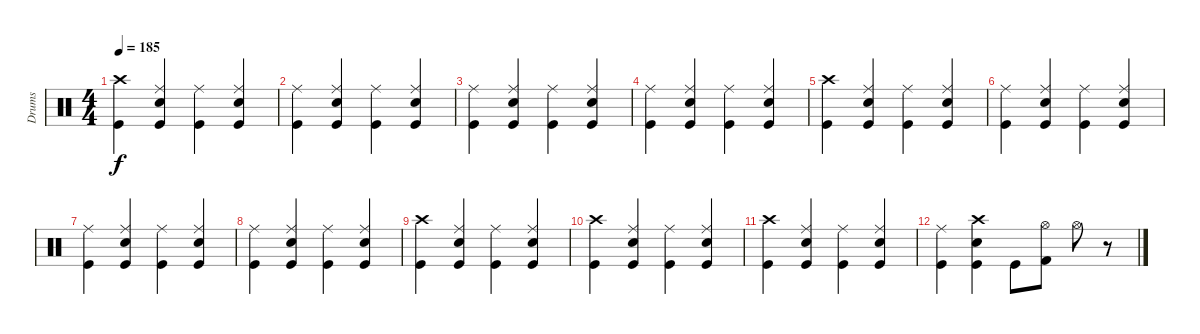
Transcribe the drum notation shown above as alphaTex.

\track ("Drums " "Drums ") {instrument percussion}
\staff {score}
\articulation defaults
\ts (4 4)
\tempo 185
\clef neutral
\ks c
("Crash high (hit)" "Kick (hit)").4{dy f} ("Ride (middle)" "Snare (hit) 2" "Kick (hit)").4 ("Ride (middle)" "Kick (hit)").4 ("Ride (middle)" "Snare (hit) 2" "Kick (hit)").4 |
("Ride (middle)" "Kick (hit)").4 ("Ride (middle)" "Snare (hit) 2" "Kick (hit)").4 ("Ride (middle)" "Kick (hit)").4 ("Ride (middle)" "Snare (hit) 2" "Kick (hit)").4 |
("Ride (middle)" "Kick (hit)").4 ("Ride (middle)" "Snare (hit) 2" "Kick (hit)").4 ("Ride (middle)" "Kick (hit)").4 ("Ride (middle)" "Snare (hit) 2" "Kick (hit)").4 |
("Ride (middle)" "Kick (hit)").4 ("Ride (middle)" "Snare (hit) 2" "Kick (hit)").4 ("Ride (middle)" "Kick (hit)").4 ("Ride (middle)" "Snare (hit) 2" "Kick (hit)").4 |
("Crash high (hit)" "Kick (hit)").4 ("Ride (middle)" "Snare (hit) 2" "Kick (hit)").4 ("Ride (middle)" "Kick (hit)").4 ("Ride (middle)" "Snare (hit) 2" "Kick (hit)").4 |
("Ride (middle)" "Kick (hit)").4 ("Ride (middle)" "Snare (hit) 2" "Kick (hit)").4 ("Ride (middle)" "Kick (hit)").4 ("Ride (middle)" "Snare (hit) 2" "Kick (hit)").4 |
("Ride (middle)" "Kick (hit)").4 ("Ride (middle)" "Snare (hit) 2" "Kick (hit)").4 ("Ride (middle)" "Kick (hit)").4 ("Ride (middle)" "Snare (hit) 2" "Kick (hit)").4 |
("Ride (middle)" "Kick (hit)").4 ("Ride (middle)" "Snare (hit) 2" "Kick (hit)").4 ("Ride (middle)" "Kick (hit)").4 ("Ride (middle)" "Snare (hit) 2" "Kick (hit)").4 |
("Crash high (hit)" "Kick (hit)").4 ("Ride (middle)" "Snare (hit) 2" "Kick (hit)").4 ("Ride (middle)" "Kick (hit)").4 ("Ride (middle)" "Snare (hit) 2" "Kick (hit)").4 |
("Crash high (hit)" "Kick (hit)").4 ("Ride (middle)" "Snare (hit) 2" "Kick (hit)").4 ("Ride (middle)" "Kick (hit)").4 ("Ride (middle)" "Snare (hit) 2" "Kick (hit)").4 |
("Crash high (hit)" "Kick (hit)").4 ("Ride (middle)" "Snare (hit) 2" "Kick (hit)").4 ("Ride (middle)" "Kick (hit)").4 ("Ride (middle)" "Snare (hit) 2" "Kick (hit)").4 |
("Ride (middle)" "Kick (hit)").4 ("Crash high (hit)" "Snare (hit) 2" "Kick (hit)").4 "Kick (hit)".8 ("Hi-Hat (open)" "Kick (hit) 2").8 "Hi-Hat (open)".8 r.8
